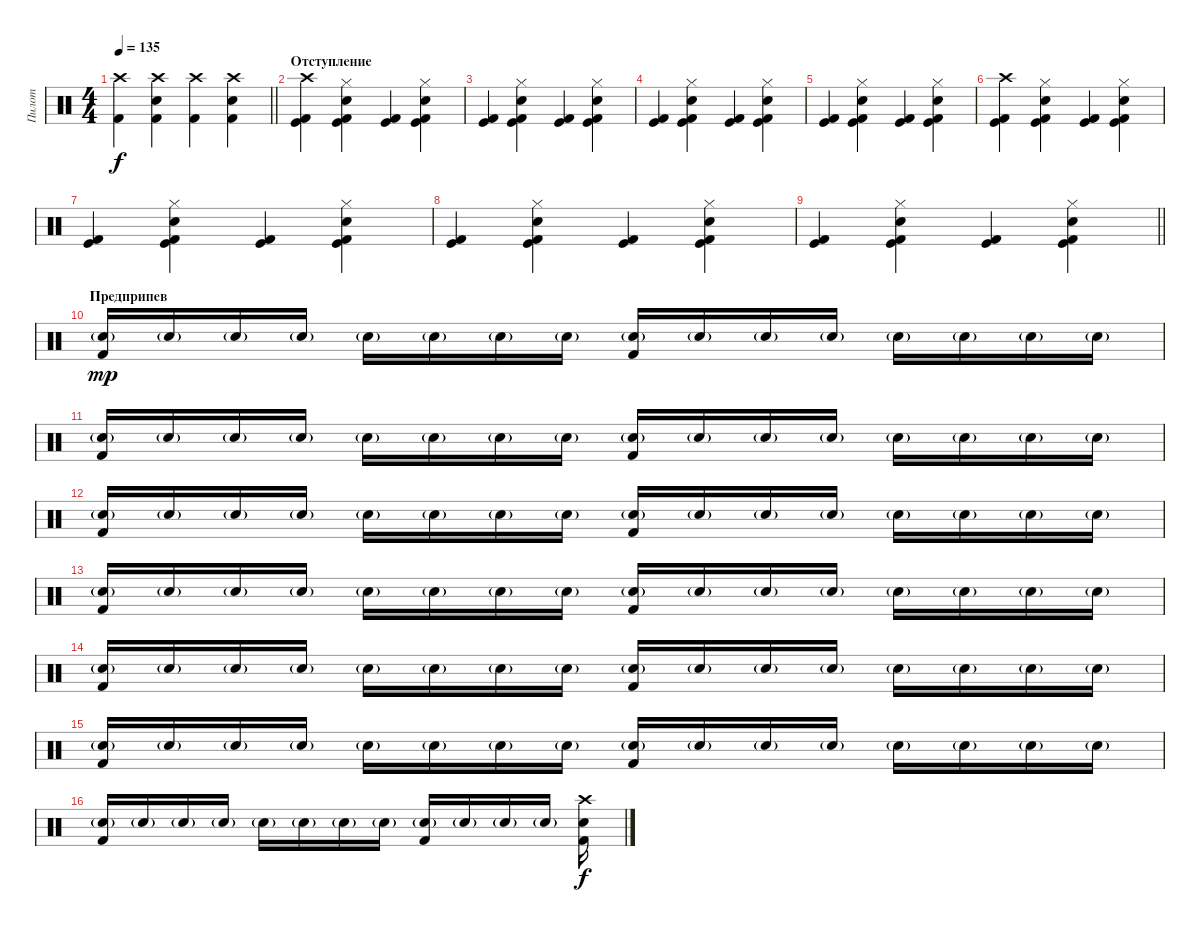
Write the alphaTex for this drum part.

\track ("Пилот" "Пилот") {instrument percussion}
\staff {score}
\articulation defaults
\ts (4 4)
\tempo 135
\clef neutral
\barLineRight lightlight
\ks c
("Crash high (hit)" "Kick (hit) 2").4{dy f} ("Crash high (hit)" "Kick (hit) 2" "Snare (hit) 2").4 ("Crash high (hit)" "Kick (hit) 2").4 ("Crash high (hit)" "Kick (hit) 2" "Snare (hit) 2").4 |
\section ("" "Отступление")
("Kick (hit) 2" "Crash high (hit)" "Kick (hit)").4 ("Kick (hit) 2" "Snare (hit) 2" "Hi-Hat (closed)" "Kick (hit)").4 ("Kick (hit) 2" "Kick (hit)").4 ("Kick (hit) 2" "Snare (hit) 2" "Hi-Hat (closed)" "Kick (hit)").4 |
("Kick (hit) 2" "Kick (hit)").4 ("Kick (hit) 2" "Snare (hit) 2" "Hi-Hat (closed)" "Kick (hit)").4 ("Kick (hit) 2" "Kick (hit)").4 ("Kick (hit) 2" "Snare (hit) 2" "Hi-Hat (closed)" "Kick (hit)").4 |
("Kick (hit) 2" "Kick (hit)").4 ("Kick (hit) 2" "Snare (hit) 2" "Hi-Hat (closed)" "Kick (hit)").4 ("Kick (hit) 2" "Kick (hit)").4 ("Kick (hit) 2" "Snare (hit) 2" "Hi-Hat (closed)" "Kick (hit)").4 |
("Kick (hit) 2" "Kick (hit)").4 ("Kick (hit) 2" "Snare (hit) 2" "Hi-Hat (closed)" "Kick (hit)").4 ("Kick (hit) 2" "Kick (hit)").4 ("Kick (hit) 2" "Snare (hit) 2" "Hi-Hat (closed)" "Kick (hit)").4 |
("Kick (hit) 2" "Crash high (hit)" "Kick (hit)").4 ("Kick (hit) 2" "Snare (hit) 2" "Hi-Hat (closed)" "Kick (hit)").4 ("Kick (hit) 2" "Kick (hit)").4 ("Kick (hit) 2" "Snare (hit) 2" "Hi-Hat (closed)" "Kick (hit)").4 |
("Kick (hit) 2" "Kick (hit)").4 ("Kick (hit) 2" "Snare (hit) 2" "Hi-Hat (closed)" "Kick (hit)").4 ("Kick (hit) 2" "Kick (hit)").4 ("Kick (hit) 2" "Snare (hit) 2" "Hi-Hat (closed)" "Kick (hit)").4 |
("Kick (hit) 2" "Kick (hit)").4 ("Kick (hit) 2" "Snare (hit) 2" "Hi-Hat (closed)" "Kick (hit)").4 ("Kick (hit) 2" "Kick (hit)").4 ("Kick (hit) 2" "Snare (hit) 2" "Hi-Hat (closed)" "Kick (hit)").4 |
\barLineRight lightlight
("Kick (hit) 2" "Kick (hit)").4 ("Kick (hit) 2" "Snare (hit) 2" "Hi-Hat (closed)" "Kick (hit)").4 ("Kick (hit) 2" "Kick (hit)").4 ("Kick (hit) 2" "Snare (hit) 2" "Hi-Hat (closed)" "Kick (hit)").4 |
\section ("" "Предприпев")
("Kick (hit) 2" "Snare (hit) 2"{g}).16{dy mp} "Snare (hit) 2"{g}.16 "Snare (hit) 2"{g}.16 "Snare (hit) 2"{g}.16 "Snare (hit) 2"{g}.16 "Snare (hit) 2"{g}.16 "Snare (hit) 2"{g}.16 "Snare (hit) 2"{g}.16 ("Kick (hit) 2" "Snare (hit) 2"{g}).16 "Snare (hit) 2"{g}.16 "Snare (hit) 2"{g}.16 "Snare (hit) 2"{g}.16 "Snare (hit) 2"{g}.16 "Snare (hit) 2"{g}.16 "Snare (hit) 2"{g}.16 "Snare (hit) 2"{g}.16 |
("Kick (hit) 2" "Snare (hit) 2"{g}).16 "Snare (hit) 2"{g}.16 "Snare (hit) 2"{g}.16 "Snare (hit) 2"{g}.16 "Snare (hit) 2"{g}.16 "Snare (hit) 2"{g}.16 "Snare (hit) 2"{g}.16 "Snare (hit) 2"{g}.16 ("Kick (hit) 2" "Snare (hit) 2"{g}).16 "Snare (hit) 2"{g}.16 "Snare (hit) 2"{g}.16 "Snare (hit) 2"{g}.16 "Snare (hit) 2"{g}.16 "Snare (hit) 2"{g}.16 "Snare (hit) 2"{g}.16 "Snare (hit) 2"{g}.16 |
("Kick (hit) 2" "Snare (hit) 2"{g}).16 "Snare (hit) 2"{g}.16 "Snare (hit) 2"{g}.16 "Snare (hit) 2"{g}.16 "Snare (hit) 2"{g}.16 "Snare (hit) 2"{g}.16 "Snare (hit) 2"{g}.16 "Snare (hit) 2"{g}.16 ("Kick (hit) 2" "Snare (hit) 2"{g}).16 "Snare (hit) 2"{g}.16 "Snare (hit) 2"{g}.16 "Snare (hit) 2"{g}.16 "Snare (hit) 2"{g}.16 "Snare (hit) 2"{g}.16 "Snare (hit) 2"{g}.16 "Snare (hit) 2"{g}.16 |
("Kick (hit) 2" "Snare (hit) 2"{g}).16 "Snare (hit) 2"{g}.16 "Snare (hit) 2"{g}.16 "Snare (hit) 2"{g}.16 "Snare (hit) 2"{g}.16 "Snare (hit) 2"{g}.16 "Snare (hit) 2"{g}.16 "Snare (hit) 2"{g}.16 ("Kick (hit) 2" "Snare (hit) 2"{g}).16 "Snare (hit) 2"{g}.16 "Snare (hit) 2"{g}.16 "Snare (hit) 2"{g}.16 "Snare (hit) 2"{g}.16 "Snare (hit) 2"{g}.16 "Snare (hit) 2"{g}.16 "Snare (hit) 2"{g}.16 |
("Kick (hit) 2" "Snare (hit) 2"{g}).16 "Snare (hit) 2"{g}.16 "Snare (hit) 2"{g}.16 "Snare (hit) 2"{g}.16 "Snare (hit) 2"{g}.16 "Snare (hit) 2"{g}.16 "Snare (hit) 2"{g}.16 "Snare (hit) 2"{g}.16 ("Kick (hit) 2" "Snare (hit) 2"{g}).16 "Snare (hit) 2"{g}.16 "Snare (hit) 2"{g}.16 "Snare (hit) 2"{g}.16 "Snare (hit) 2"{g}.16 "Snare (hit) 2"{g}.16 "Snare (hit) 2"{g}.16 "Snare (hit) 2"{g}.16 |
("Kick (hit) 2" "Snare (hit) 2"{g}).16 "Snare (hit) 2"{g}.16 "Snare (hit) 2"{g}.16 "Snare (hit) 2"{g}.16 "Snare (hit) 2"{g}.16 "Snare (hit) 2"{g}.16 "Snare (hit) 2"{g}.16 "Snare (hit) 2"{g}.16 ("Kick (hit) 2" "Snare (hit) 2"{g}).16 "Snare (hit) 2"{g}.16 "Snare (hit) 2"{g}.16 "Snare (hit) 2"{g}.16 "Snare (hit) 2"{g}.16 "Snare (hit) 2"{g}.16 "Snare (hit) 2"{g}.16 "Snare (hit) 2"{g}.16 |
("Kick (hit) 2" "Snare (hit) 2"{g}).16 "Snare (hit) 2"{g}.16 "Snare (hit) 2"{g}.16 "Snare (hit) 2"{g}.16 "Snare (hit) 2"{g}.16 "Snare (hit) 2"{g}.16 "Snare (hit) 2"{g}.16 "Snare (hit) 2"{g}.16 ("Kick (hit) 2" "Snare (hit) 2"{g}).16 "Snare (hit) 2"{g}.16 "Snare (hit) 2"{g}.16 "Snare (hit) 2"{g}.16 ("Crash high (hit)" "Kick (hit) 2" "Snare (hit) 2").16{dy f}
